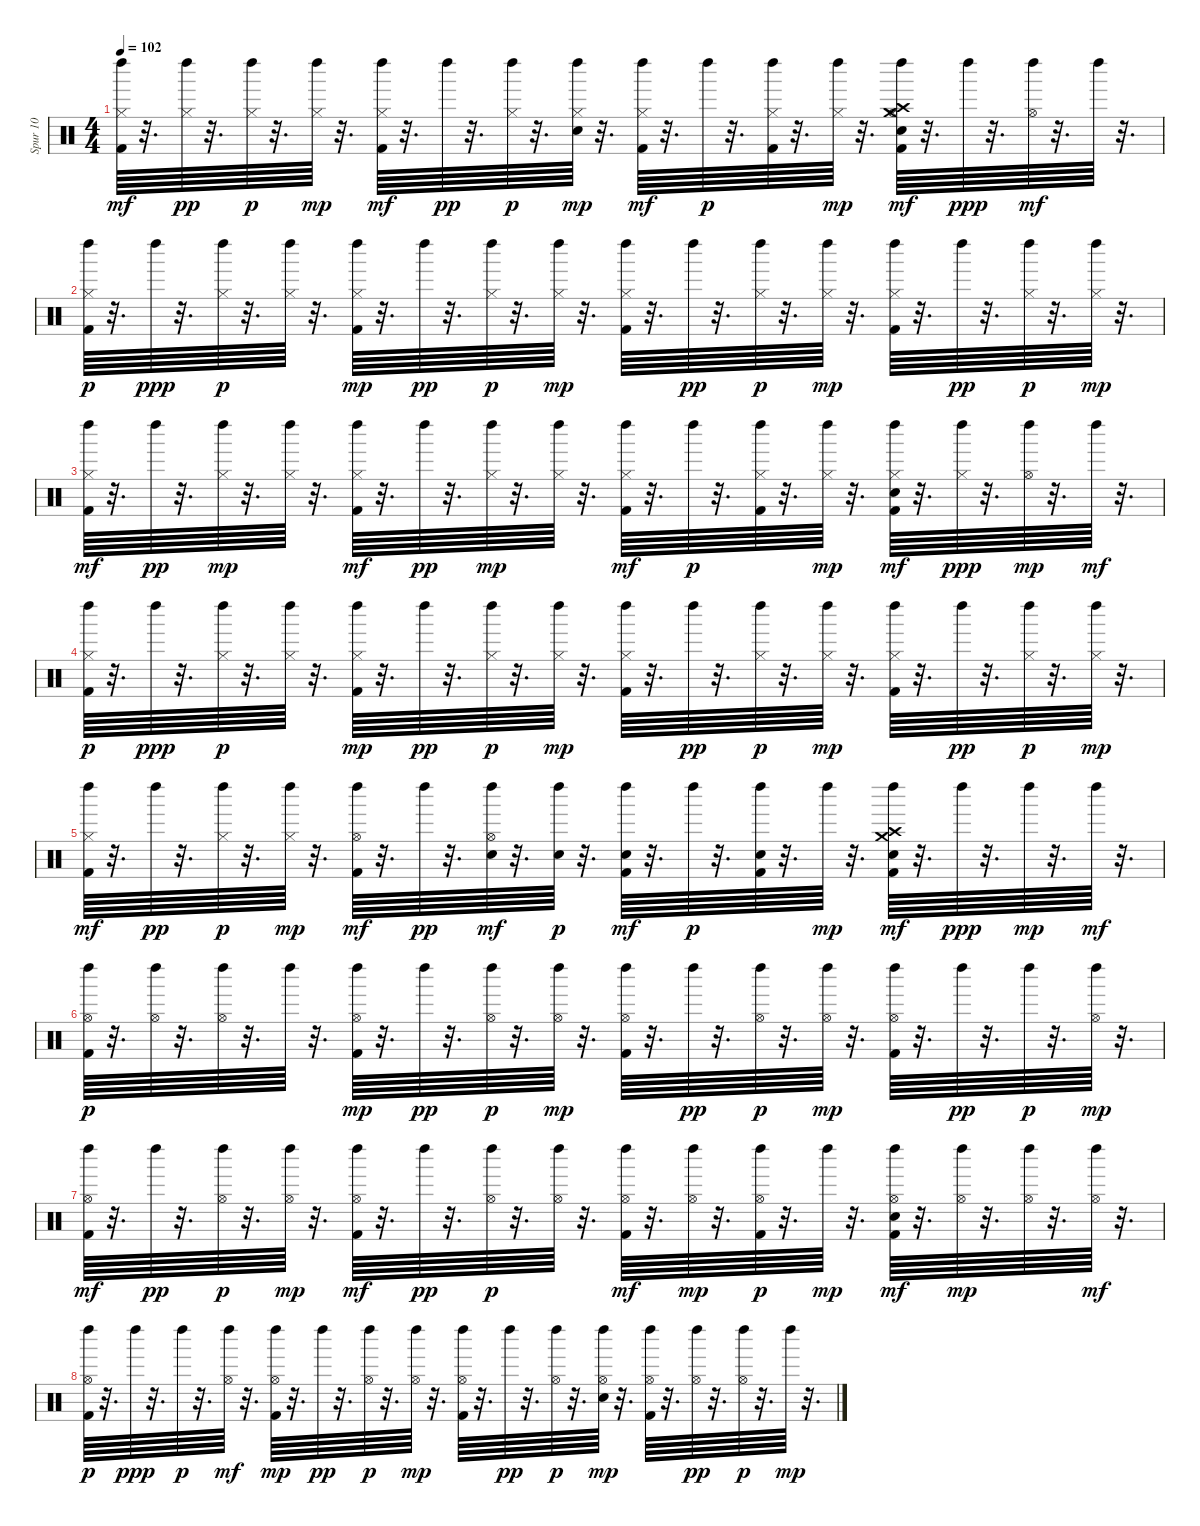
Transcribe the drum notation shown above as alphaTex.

\track ("Spur 10" "Spur 10") {instrument percussion}
\staff {score}
\articulation defaults
\ts (4 4)
\tempo 102
\clef neutral
\ks c
("Left Maraca (hit)" "Kick (hit) 2" "Hi-Hat (closed)").64{dy mf} r.32{d} ("Hi-Hat (closed)" "Left Maraca (hit)").64{dy pp} r.32{d} ("Left Maraca (hit)" "Hi-Hat (closed)").64{dy p} r.32{d} ("Left Maraca (hit)" "Hi-Hat (closed)").64{dy mp} r.32{d} ("Kick (hit) 2" "Hi-Hat (closed)" "Left Maraca (hit)").64{dy mf} r.32{d} "Left Maraca (hit)".64{dy pp} r.32{d} ("Hi-Hat (closed)" "Left Maraca (hit)").64{dy p} r.32{d} ("Snare (hit) 2" "Left Maraca (hit)" "Hi-Hat (closed)").64{dy mp} r.32{d} ("Hi-Hat (closed)" "Left Maraca (hit)" "Kick (hit) 2").64{dy mf} r.32{d} "Left Maraca (hit)".64{dy p} r.32{d} ("Kick (hit) 2" "Hi-Hat (closed)" "Left Maraca (hit)").64 r.32{d} ("Hi-Hat (closed)" "Left Maraca (hit)").64{dy mp} r.32{d} ("Hi-Hat (open)" "Crash medium (hit)" "Crash high (hit)" "Left Maraca (hit)" "Kick (hit) 2" "Snare (hit) 2").64{dy mf} r.32{d} "Left Maraca (hit)".64{dy ppp} r.32{d} ("Left Maraca (hit)" "Hi-Hat (open)").64{dy mf} r.32{d} "Left Maraca (hit)".64 r.32{d} |
("Hi-Hat (closed)" "Left Maraca (hit)" "Kick (hit) 2").64{dy p} r.32{d} "Left Maraca (hit)".64{dy ppp} r.32{d} ("Hi-Hat (closed)" "Left Maraca (hit)").64{dy p} r.32{d} ("Hi-Hat (closed)" "Left Maraca (hit)").64 r.32{d} ("Hi-Hat (closed)" "Left Maraca (hit)" "Kick (hit) 2").64{dy mp} r.32{d} "Left Maraca (hit)".64{dy pp} r.32{d} ("Hi-Hat (closed)" "Left Maraca (hit)").64{dy p} r.32{d} ("Hi-Hat (closed)" "Left Maraca (hit)").64{dy mp} r.32{d} ("Hi-Hat (closed)" "Kick (hit) 2" "Left Maraca (hit)").64 r.32{d} "Left Maraca (hit)".64{dy pp} r.32{d} ("Hi-Hat (closed)" "Left Maraca (hit)").64{dy p} r.32{d} ("Hi-Hat (closed)" "Left Maraca (hit)").64{dy mp} r.32{d} ("Kick (hit) 2" "Hi-Hat (closed)" "Left Maraca (hit)").64 r.32{d} "Left Maraca (hit)".64{dy pp} r.32{d} ("Left Maraca (hit)" "Hi-Hat (closed)").64{dy p} r.32{d} ("Hi-Hat (closed)" "Left Maraca (hit)").64{dy mp} r.32{d} |
("Kick (hit) 2" "Hi-Hat (closed)" "Left Maraca (hit)").64{dy mf} r.32{d} "Left Maraca (hit)".64{dy pp} r.32{d} ("Left Maraca (hit)" "Hi-Hat (closed)").64{dy mp} r.32{d} ("Left Maraca (hit)" "Hi-Hat (closed)").64 r.32{d} ("Kick (hit) 2" "Left Maraca (hit)" "Hi-Hat (closed)").64{dy mf} r.32{d} "Left Maraca (hit)".64{dy pp} r.32{d} ("Left Maraca (hit)" "Hi-Hat (closed)").64{dy mp} r.32{d} ("Left Maraca (hit)" "Hi-Hat (closed)").64 r.32{d} ("Kick (hit) 2" "Left Maraca (hit)" "Hi-Hat (closed)").64{dy mf} r.32{d} "Left Maraca (hit)".64{dy p} r.32{d} ("Kick (hit) 2" "Hi-Hat (closed)" "Left Maraca (hit)").64 r.32{d} ("Hi-Hat (closed)" "Left Maraca (hit)").64{dy mp} r.32{d} ("Hi-Hat (closed)" "Left Maraca (hit)" "Snare (hit) 2" "Kick (hit) 2").64{dy mf} r.32{d} ("Hi-Hat (closed)" "Left Maraca (hit)").64{dy ppp} r.32{d} ("Hi-Hat (open)" "Left Maraca (hit)").64{dy mp} r.32{d} "Left Maraca (hit)".64{dy mf} r.32{d} |
("Left Maraca (hit)" "Kick (hit) 2" "Hi-Hat (closed)").64{dy p} r.32{d} "Left Maraca (hit)".64{dy ppp} r.32{d} ("Hi-Hat (closed)" "Left Maraca (hit)").64{dy p} r.32{d} ("Hi-Hat (closed)" "Left Maraca (hit)").64 r.32{d} ("Hi-Hat (closed)" "Left Maraca (hit)" "Kick (hit) 2").64{dy mp} r.32{d} "Left Maraca (hit)".64{dy pp} r.32{d} ("Hi-Hat (closed)" "Left Maraca (hit)").64{dy p} r.32{d} ("Hi-Hat (closed)" "Left Maraca (hit)").64{dy mp} r.32{d} ("Kick (hit) 2" "Hi-Hat (closed)" "Left Maraca (hit)").64 r.32{d} "Left Maraca (hit)".64{dy pp} r.32{d} ("Hi-Hat (closed)" "Left Maraca (hit)").64{dy p} r.32{d} ("Hi-Hat (closed)" "Left Maraca (hit)").64{dy mp} r.32{d} ("Kick (hit) 2" "Hi-Hat (closed)" "Left Maraca (hit)").64 r.32{d} "Left Maraca (hit)".64{dy pp} r.32{d} ("Hi-Hat (closed)" "Left Maraca (hit)").64{dy p} r.32{d} ("Hi-Hat (closed)" "Left Maraca (hit)").64{dy mp} r.32{d} |
("Kick (hit) 2" "Hi-Hat (closed)" "Left Maraca (hit)").64{dy mf} r.32{d} "Left Maraca (hit)".64{dy pp} r.32{d} ("Hi-Hat (closed)" "Left Maraca (hit)").64{dy p} r.32{d} ("Hi-Hat (closed)" "Left Maraca (hit)").64{dy mp} r.32{d} ("Kick (hit) 2" "Hi-Hat (open)" "Left Maraca (hit)").64{dy mf} r.32{d} "Left Maraca (hit)".64{dy pp} r.32{d} ("Hi-Hat (open)" "Left Maraca (hit)" "Snare (hit) 2").64{dy mf} r.32{d} ("Left Maraca (hit)" "Snare (hit) 2").64{dy p} r.32{d} ("Kick (hit) 2" "Snare (hit) 2" "Left Maraca (hit)").64{dy mf} r.32{d} "Left Maraca (hit)".64{dy p} r.32{d} ("Snare (hit) 2" "Kick (hit) 2" "Left Maraca (hit)").64 r.32{d} "Left Maraca (hit)".64{dy mp} r.32{d} ("Snare (hit) 2" "Crash medium (hit)" "Crash high (hit)" "Left Maraca (hit)" "Kick (hit) 2").64{dy mf} r.32{d} "Left Maraca (hit)".64{dy ppp} r.32{d} "Left Maraca (hit)".64{dy mp} r.32{d} "Left Maraca (hit)".64{dy mf} r.32{d} |
("Kick (hit) 2" "Hi-Hat (open)" "Left Maraca (hit)").64{dy p} r.32{d} ("Left Maraca (hit)" "Hi-Hat (open)").64 r.32{d} ("Hi-Hat (open)" "Left Maraca (hit)").64 r.32{d} "Left Maraca (hit)".64 r.32{d} ("Left Maraca (hit)" "Kick (hit) 2" "Hi-Hat (open)").64{dy mp} r.32{d} "Left Maraca (hit)".64{dy pp} r.32{d} ("Hi-Hat (open)" "Left Maraca (hit)").64{dy p} r.32{d} ("Hi-Hat (open)" "Left Maraca (hit)").64{dy mp} r.32{d} ("Kick (hit) 2" "Hi-Hat (open)" "Left Maraca (hit)").64 r.32{d} "Left Maraca (hit)".64{dy pp} r.32{d} ("Hi-Hat (open)" "Left Maraca (hit)").64{dy p} r.32{d} ("Hi-Hat (open)" "Left Maraca (hit)").64{dy mp} r.32{d} ("Kick (hit) 2" "Hi-Hat (open)" "Left Maraca (hit)").64 r.32{d} "Left Maraca (hit)".64{dy pp} r.32{d} "Left Maraca (hit)".64{dy p} r.32{d} ("Hi-Hat (open)" "Left Maraca (hit)").64{dy mp} r.32{d} |
("Hi-Hat (open)" "Kick (hit) 2" "Left Maraca (hit)").64{dy mf} r.32{d} "Left Maraca (hit)".64{dy pp} r.32{d} ("Hi-Hat (open)" "Left Maraca (hit)").64{dy p} r.32{d} ("Hi-Hat (open)" "Left Maraca (hit)").64{dy mp} r.32{d} ("Kick (hit) 2" "Hi-Hat (open)" "Left Maraca (hit)").64{dy mf} r.32{d} "Left Maraca (hit)".64{dy pp} r.32{d} ("Hi-Hat (open)" "Left Maraca (hit)").64{dy p} r.32{d} ("Left Maraca (hit)" "Hi-Hat (open)").64 r.32{d} ("Kick (hit) 2" "Hi-Hat (open)" "Left Maraca (hit)").64{dy mf} r.32{d} ("Left Maraca (hit)" "Hi-Hat (open)").64{dy mp} r.32{d} ("Hi-Hat (open)" "Left Maraca (hit)" "Kick (hit) 2").64{dy p} r.32{d} "Left Maraca (hit)".64{dy mp} r.32{d} ("Hi-Hat (open)" "Left Maraca (hit)" "Snare (hit) 2" "Kick (hit) 2").64{dy mf} r.32{d} ("Left Maraca (hit)" "Hi-Hat (open)").64{dy mp} r.32{d} ("Hi-Hat (open)" "Left Maraca (hit)").64 r.32{d} ("Hi-Hat (open)" "Left Maraca (hit)").64{dy mf} r.32{d} |
("Hi-Hat (open)" "Left Maraca (hit)" "Kick (hit) 2").64{dy p} r.32{d} "Left Maraca (hit)".64{dy ppp} r.32{d} "Left Maraca (hit)".64{dy p} r.32{d} ("Left Maraca (hit)" "Hi-Hat (open)").64{dy mf} r.32{d} ("Kick (hit) 2" "Hi-Hat (open)" "Left Maraca (hit)").64{dy mp} r.32{d} "Left Maraca (hit)".64{dy pp} r.32{d} ("Hi-Hat (open)" "Left Maraca (hit)").64{dy p} r.32{d} ("Hi-Hat (open)" "Left Maraca (hit)").64{dy mp} r.32{d} ("Kick (hit) 2" "Hi-Hat (open)" "Left Maraca (hit)").64 r.32{d} "Left Maraca (hit)".64{dy pp} r.32{d} ("Hi-Hat (open)" "Left Maraca (hit)").64{dy p} r.32{d} ("Hi-Hat (open)" "Snare (hit) 2" "Left Maraca (hit)").64{dy mp} r.32{d} ("Kick (hit) 2" "Hi-Hat (open)" "Left Maraca (hit)").64 r.32{d} ("Hi-Hat (open)" "Left Maraca (hit)").64{dy pp} r.32{d} ("Hi-Hat (open)" "Left Maraca (hit)").64{dy p} r.32{d} "Left Maraca (hit)".64{dy mp} r.32{d}
